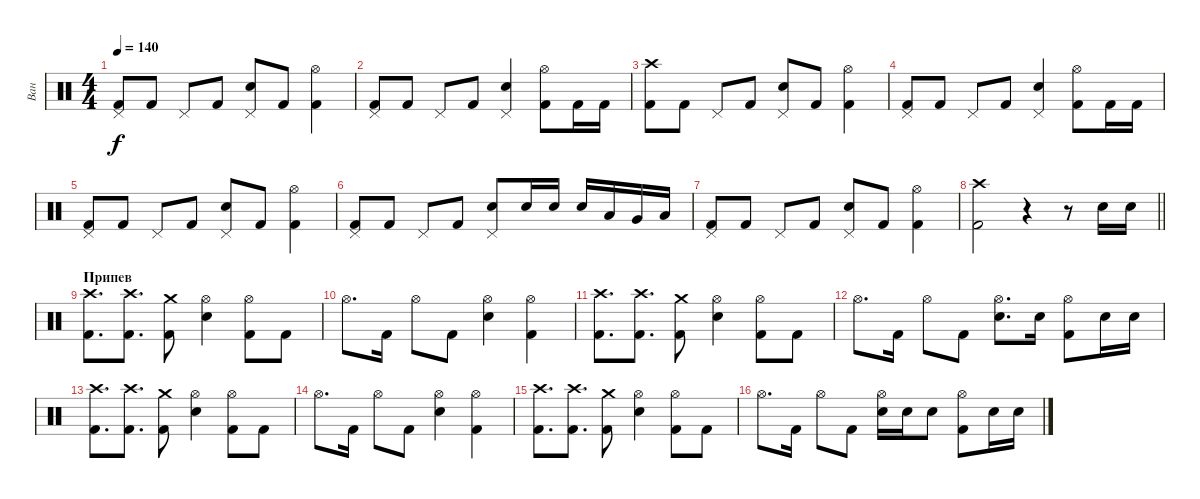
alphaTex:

\track ("Ван" "Ван") {instrument percussion}
\staff {score}
\articulation defaults
\ts (4 4)
\tempo 140
\clef neutral
\ks c
("Pedal Hi-Hat (hit)" "Kick (hit) 2").8{dy f} "Kick (hit) 2".8 "Pedal Hi-Hat (hit)".8 "Kick (hit) 2".8 ("Pedal Hi-Hat (hit)" "Snare (hit) 2").8 "Kick (hit) 2".8 ("Hi-Hat (open)" "Kick (hit) 2").4 |
("Pedal Hi-Hat (hit)" "Kick (hit) 2").8 "Kick (hit) 2".8 "Pedal Hi-Hat (hit)".8 "Kick (hit) 2".8 ("Pedal Hi-Hat (hit)" "Snare (hit) 2").4 ("Hi-Hat (open)" "Kick (hit) 2").8 "Kick (hit) 2".16 "Kick (hit) 2".16 |
("Crash high (hit)" "Kick (hit) 2").8 "Kick (hit) 2".8 "Pedal Hi-Hat (hit)".8 "Kick (hit) 2".8 ("Pedal Hi-Hat (hit)" "Snare (hit) 2").8 "Kick (hit) 2".8 ("Hi-Hat (open)" "Kick (hit) 2").4 |
("Pedal Hi-Hat (hit)" "Kick (hit) 2").8 "Kick (hit) 2".8 "Pedal Hi-Hat (hit)".8 "Kick (hit) 2".8 ("Pedal Hi-Hat (hit)" "Snare (hit) 2").4 ("Hi-Hat (open)" "Kick (hit) 2").8 "Kick (hit) 2".16 "Kick (hit) 2".16 |
("Pedal Hi-Hat (hit)" "Kick (hit) 2").8 "Kick (hit) 2".8 "Pedal Hi-Hat (hit)".8 "Kick (hit) 2".8 ("Pedal Hi-Hat (hit)" "Snare (hit) 2").8 "Kick (hit) 2".8 ("Hi-Hat (open)" "Kick (hit) 2").4 |
("Pedal Hi-Hat (hit)" "Kick (hit) 2").8 "Kick (hit) 2".8 "Pedal Hi-Hat (hit)".8 "Kick (hit) 2".8 ("Pedal Hi-Hat (hit)" "Snare (hit) 2").8 "Snare (hit) 2".16 "Snare (hit) 2".16 "Snare (hit) 2".16 "Low Floor Tom (hit)".16 "Very Low Tom (hit)".16 "Low Tom (hit)".16 |
("Pedal Hi-Hat (hit)" "Kick (hit) 2").8 "Kick (hit) 2".8 "Pedal Hi-Hat (hit)".8 "Kick (hit) 2".8 ("Pedal Hi-Hat (hit)" "Snare (hit) 2").8 "Kick (hit) 2".8 ("Hi-Hat (open)" "Kick (hit) 2").4 |
\barLineRight lightlight
("Crash high (hit)" "Kick (hit) 2").2 r.4 r.8 "Snare (hit) 2".16 "Snare (hit) 2".16 |
\section ("" "Припев")
("Crash high (hit)" "Kick (hit) 2").8{d} ("Crash high (hit)" "Kick (hit) 2").8{d} ("Crash medium (hit)" "Kick (hit) 2").8 ("Hi-Hat (open)" "Snare (hit) 2").4 ("Hi-Hat (open)" "Kick (hit) 2").8 "Kick (hit) 2".8 |
"Hi-Hat (open)".8{d} "Kick (hit) 2".16 "Hi-Hat (open)".8 "Kick (hit) 2".8 ("Hi-Hat (open)" "Snare (hit) 2").4 ("Hi-Hat (open)" "Kick (hit) 2").4 |
("Crash high (hit)" "Kick (hit) 2").8{d} ("Crash high (hit)" "Kick (hit) 2").8{d} ("Crash medium (hit)" "Kick (hit) 2").8 ("Hi-Hat (open)" "Snare (hit) 2").4 ("Hi-Hat (open)" "Kick (hit) 2").8 "Kick (hit) 2".8 |
"Hi-Hat (open)".8{d} "Kick (hit) 2".16 "Hi-Hat (open)".8 "Kick (hit) 2".8 ("Hi-Hat (open)" "Snare (hit) 2").8{d} "Snare (hit) 2".16 ("Hi-Hat (open)" "Kick (hit) 2").8 "Snare (hit) 2".16 "Snare (hit) 2".16 |
("Crash high (hit)" "Kick (hit) 2").8{d} ("Crash high (hit)" "Kick (hit) 2").8{d} ("Crash medium (hit)" "Kick (hit) 2").8 ("Hi-Hat (open)" "Snare (hit) 2").4 ("Hi-Hat (open)" "Kick (hit) 2").8 "Kick (hit) 2".8 |
"Hi-Hat (open)".8{d} "Kick (hit) 2".16 "Hi-Hat (open)".8 "Kick (hit) 2".8 ("Hi-Hat (open)" "Snare (hit) 2").4 ("Hi-Hat (open)" "Kick (hit) 2").4 |
("Crash high (hit)" "Kick (hit) 2").8{d} ("Crash high (hit)" "Kick (hit) 2").8{d} ("Crash medium (hit)" "Kick (hit) 2").8 ("Hi-Hat (open)" "Snare (hit) 2").4 ("Hi-Hat (open)" "Kick (hit) 2").8 "Kick (hit) 2".8 |
"Hi-Hat (open)".8{d} "Kick (hit) 2".16 "Hi-Hat (open)".8 "Kick (hit) 2".8 ("Hi-Hat (open)" "Snare (hit) 2").16 "Snare (hit) 2".16 "Snare (hit) 2".8 ("Hi-Hat (open)" "Kick (hit) 2").8 "Snare (hit) 2".16 "Snare (hit) 2".16
